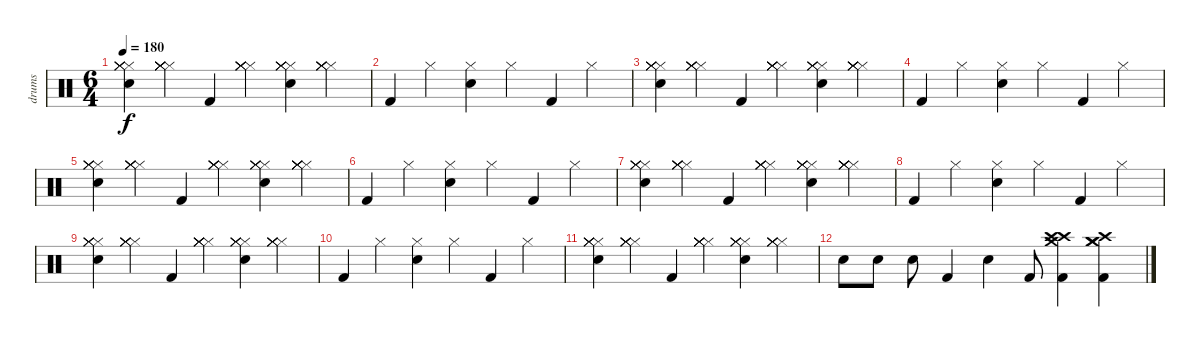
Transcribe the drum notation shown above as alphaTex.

\track ("drums" "drums") {instrument percussion}
\staff {score}
\articulation defaults
\ts (6 4)
\tempo 180
\clef neutral
\ks c
("Snare (hit) 2" "Hi-Hat (closed)" "Hi-Hat (closed)" "Hi-Hat (closed)" "Hi-Hat (closed)" "Hi-Hat (closed)").4{dy f} ("Hi-Hat (closed)" "Hi-Hat (closed)" "Hi-Hat (closed)" "Hi-Hat (closed)" "Hi-Hat (closed)" "Hi-Hat (closed)").4 "Kick (hit) 2".4 ("Hi-Hat (closed)" "Hi-Hat (closed)" "Hi-Hat (closed)" "Hi-Hat (closed)" "Hi-Hat (closed)" "Hi-Hat (closed)").4 ("Snare (hit) 2" "Hi-Hat (closed)" "Hi-Hat (closed)" "Hi-Hat (closed)" "Hi-Hat (closed)" "Hi-Hat (closed)").4 ("Hi-Hat (closed)" "Hi-Hat (closed)" "Hi-Hat (closed)" "Hi-Hat (closed)" "Hi-Hat (closed)" "Hi-Hat (closed)").4 |
"Kick (hit) 2".4 "Hi-Hat (closed)".4 ("Snare (hit) 2" "Hi-Hat (closed)").4 "Hi-Hat (closed)".4 "Kick (hit) 2".4 "Hi-Hat (closed)".4 |
("Snare (hit) 2" "Hi-Hat (closed)" "Hi-Hat (closed)" "Hi-Hat (closed)" "Hi-Hat (closed)" "Hi-Hat (closed)").4 ("Hi-Hat (closed)" "Hi-Hat (closed)" "Hi-Hat (closed)" "Hi-Hat (closed)" "Hi-Hat (closed)" "Hi-Hat (closed)").4 "Kick (hit) 2".4 ("Hi-Hat (closed)" "Hi-Hat (closed)" "Hi-Hat (closed)" "Hi-Hat (closed)" "Hi-Hat (closed)" "Hi-Hat (closed)").4 ("Snare (hit) 2" "Hi-Hat (closed)" "Hi-Hat (closed)" "Hi-Hat (closed)" "Hi-Hat (closed)" "Hi-Hat (closed)").4 ("Hi-Hat (closed)" "Hi-Hat (closed)" "Hi-Hat (closed)" "Hi-Hat (closed)" "Hi-Hat (closed)" "Hi-Hat (closed)").4 |
"Kick (hit) 2".4 "Hi-Hat (closed)".4 ("Snare (hit) 2" "Hi-Hat (closed)").4 "Hi-Hat (closed)".4 "Kick (hit) 2".4 "Hi-Hat (closed)".4 |
("Snare (hit) 2" "Hi-Hat (closed)" "Hi-Hat (closed)" "Hi-Hat (closed)" "Hi-Hat (closed)" "Hi-Hat (closed)").4 ("Hi-Hat (closed)" "Hi-Hat (closed)" "Hi-Hat (closed)" "Hi-Hat (closed)" "Hi-Hat (closed)" "Hi-Hat (closed)").4 "Kick (hit) 2".4 ("Hi-Hat (closed)" "Hi-Hat (closed)" "Hi-Hat (closed)" "Hi-Hat (closed)" "Hi-Hat (closed)" "Hi-Hat (closed)").4 ("Snare (hit) 2" "Hi-Hat (closed)" "Hi-Hat (closed)" "Hi-Hat (closed)" "Hi-Hat (closed)" "Hi-Hat (closed)").4 ("Hi-Hat (closed)" "Hi-Hat (closed)" "Hi-Hat (closed)" "Hi-Hat (closed)" "Hi-Hat (closed)" "Hi-Hat (closed)").4 |
"Kick (hit) 2".4 "Hi-Hat (closed)".4 ("Snare (hit) 2" "Hi-Hat (closed)").4 "Hi-Hat (closed)".4 "Kick (hit) 2".4 "Hi-Hat (closed)".4 |
("Snare (hit) 2" "Hi-Hat (closed)" "Hi-Hat (closed)" "Hi-Hat (closed)" "Hi-Hat (closed)" "Hi-Hat (closed)").4 ("Hi-Hat (closed)" "Hi-Hat (closed)" "Hi-Hat (closed)" "Hi-Hat (closed)" "Hi-Hat (closed)" "Hi-Hat (closed)").4 "Kick (hit) 2".4 ("Hi-Hat (closed)" "Hi-Hat (closed)" "Hi-Hat (closed)" "Hi-Hat (closed)" "Hi-Hat (closed)" "Hi-Hat (closed)").4 ("Snare (hit) 2" "Hi-Hat (closed)" "Hi-Hat (closed)" "Hi-Hat (closed)" "Hi-Hat (closed)" "Hi-Hat (closed)").4 ("Hi-Hat (closed)" "Hi-Hat (closed)" "Hi-Hat (closed)" "Hi-Hat (closed)" "Hi-Hat (closed)" "Hi-Hat (closed)").4 |
"Kick (hit) 2".4 "Hi-Hat (closed)".4 ("Snare (hit) 2" "Hi-Hat (closed)").4 "Hi-Hat (closed)".4 "Kick (hit) 2".4 "Hi-Hat (closed)".4 |
("Snare (hit) 2" "Hi-Hat (closed)" "Hi-Hat (closed)" "Hi-Hat (closed)" "Hi-Hat (closed)" "Hi-Hat (closed)").4 ("Hi-Hat (closed)" "Hi-Hat (closed)" "Hi-Hat (closed)" "Hi-Hat (closed)" "Hi-Hat (closed)" "Hi-Hat (closed)").4 "Kick (hit) 2".4 ("Hi-Hat (closed)" "Hi-Hat (closed)" "Hi-Hat (closed)" "Hi-Hat (closed)" "Hi-Hat (closed)" "Hi-Hat (closed)").4 ("Snare (hit) 2" "Hi-Hat (closed)" "Hi-Hat (closed)" "Hi-Hat (closed)" "Hi-Hat (closed)" "Hi-Hat (closed)").4 ("Hi-Hat (closed)" "Hi-Hat (closed)" "Hi-Hat (closed)" "Hi-Hat (closed)" "Hi-Hat (closed)" "Hi-Hat (closed)").4 |
"Kick (hit) 2".4 "Hi-Hat (closed)".4 ("Snare (hit) 2" "Hi-Hat (closed)").4 "Hi-Hat (closed)".4 "Kick (hit) 2".4 "Hi-Hat (closed)".4 |
("Snare (hit) 2" "Hi-Hat (closed)" "Hi-Hat (closed)" "Hi-Hat (closed)" "Hi-Hat (closed)" "Hi-Hat (closed)").4 ("Hi-Hat (closed)" "Hi-Hat (closed)" "Hi-Hat (closed)" "Hi-Hat (closed)" "Hi-Hat (closed)" "Hi-Hat (closed)").4 "Kick (hit) 2".4 ("Hi-Hat (closed)" "Hi-Hat (closed)" "Hi-Hat (closed)" "Hi-Hat (closed)" "Hi-Hat (closed)" "Hi-Hat (closed)").4 ("Snare (hit) 2" "Hi-Hat (closed)" "Hi-Hat (closed)" "Hi-Hat (closed)" "Hi-Hat (closed)" "Hi-Hat (closed)").4 ("Hi-Hat (closed)" "Hi-Hat (closed)" "Hi-Hat (closed)" "Hi-Hat (closed)" "Hi-Hat (closed)" "Hi-Hat (closed)").4 |
"Snare (hit) 2".8 "Snare (hit) 2".8 "Snare (hit) 2".8 "Kick (hit) 2".4 "Snare (hit) 2".4 "Kick (hit) 2".8 ("Crash medium (hit)" "Crash high (hit)" "Crash high (hit)" "Kick (hit) 2").4 ("Crash medium (hit)" "Crash medium (hit)" "Crash high (hit)" "Kick (hit) 2").4
